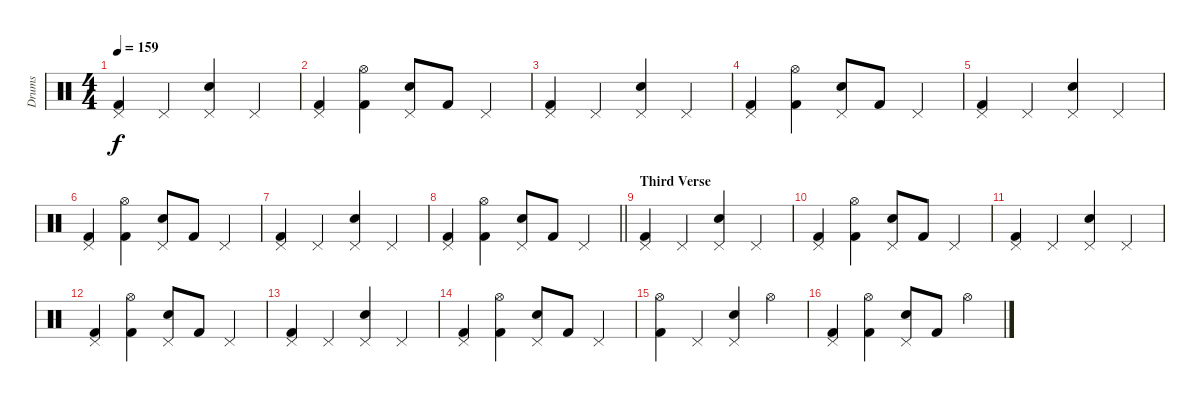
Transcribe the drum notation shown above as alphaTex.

\track ("Drums" "Drums") {instrument percussion}
\staff {score}
\articulation defaults
\ts (4 4)
\tempo 159
\clef neutral
\ks c
("Pedal Hi-Hat (hit)" "Kick (hit) 2").4{dy f} "Pedal Hi-Hat (hit)".4 ("Pedal Hi-Hat (hit)" "Snare (hit) 2").4 "Pedal Hi-Hat (hit)".4 |
("Pedal Hi-Hat (hit)" "Kick (hit) 2").4 ("Hi-Hat (open)" "Kick (hit) 2").4 ("Pedal Hi-Hat (hit)" "Snare (hit) 2").8 "Kick (hit) 2".8 "Pedal Hi-Hat (hit)".4 |
("Pedal Hi-Hat (hit)" "Kick (hit) 2").4 "Pedal Hi-Hat (hit)".4 ("Pedal Hi-Hat (hit)" "Snare (hit) 2").4 "Pedal Hi-Hat (hit)".4 |
("Pedal Hi-Hat (hit)" "Kick (hit) 2").4 ("Hi-Hat (open)" "Kick (hit) 2").4 ("Pedal Hi-Hat (hit)" "Snare (hit) 2").8 "Kick (hit) 2".8 "Pedal Hi-Hat (hit)".4 |
("Pedal Hi-Hat (hit)" "Kick (hit) 2").4 "Pedal Hi-Hat (hit)".4 ("Pedal Hi-Hat (hit)" "Snare (hit) 2").4 "Pedal Hi-Hat (hit)".4 |
("Pedal Hi-Hat (hit)" "Kick (hit) 2").4 ("Hi-Hat (open)" "Kick (hit) 2").4 ("Pedal Hi-Hat (hit)" "Snare (hit) 2").8 "Kick (hit) 2".8 "Pedal Hi-Hat (hit)".4 |
("Pedal Hi-Hat (hit)" "Kick (hit) 2").4 "Pedal Hi-Hat (hit)".4 ("Pedal Hi-Hat (hit)" "Snare (hit) 2").4 "Pedal Hi-Hat (hit)".4 |
\barLineRight lightlight
("Pedal Hi-Hat (hit)" "Kick (hit) 2").4 ("Hi-Hat (open)" "Kick (hit) 2").4 ("Pedal Hi-Hat (hit)" "Snare (hit) 2").8 "Kick (hit) 2".8 "Pedal Hi-Hat (hit)".4 |
\section ("" "Third Verse")
("Pedal Hi-Hat (hit)" "Kick (hit) 2").4 "Pedal Hi-Hat (hit)".4 ("Pedal Hi-Hat (hit)" "Snare (hit) 2").4 "Pedal Hi-Hat (hit)".4 |
("Pedal Hi-Hat (hit)" "Kick (hit) 2").4 ("Hi-Hat (open)" "Kick (hit) 2").4 ("Pedal Hi-Hat (hit)" "Snare (hit) 2").8 "Kick (hit) 2".8 "Pedal Hi-Hat (hit)".4 |
("Pedal Hi-Hat (hit)" "Kick (hit) 2").4 "Pedal Hi-Hat (hit)".4 ("Pedal Hi-Hat (hit)" "Snare (hit) 2").4 "Pedal Hi-Hat (hit)".4 |
("Pedal Hi-Hat (hit)" "Kick (hit) 2").4 ("Hi-Hat (open)" "Kick (hit) 2").4 ("Pedal Hi-Hat (hit)" "Snare (hit) 2").8 "Kick (hit) 2".8 "Pedal Hi-Hat (hit)".4 |
("Pedal Hi-Hat (hit)" "Kick (hit) 2").4 "Pedal Hi-Hat (hit)".4 ("Pedal Hi-Hat (hit)" "Snare (hit) 2").4 "Pedal Hi-Hat (hit)".4 |
("Pedal Hi-Hat (hit)" "Kick (hit) 2").4 ("Hi-Hat (open)" "Kick (hit) 2").4 ("Pedal Hi-Hat (hit)" "Snare (hit) 2").8 "Kick (hit) 2".8 "Pedal Hi-Hat (hit)".4 |
("Hi-Hat (open)" "Kick (hit) 2").4 "Pedal Hi-Hat (hit)".4 ("Pedal Hi-Hat (hit)" "Snare (hit) 2").4 "Hi-Hat (open)".4 |
("Pedal Hi-Hat (hit)" "Kick (hit) 2").4 ("Hi-Hat (open)" "Kick (hit) 2").4 ("Pedal Hi-Hat (hit)" "Snare (hit) 2").8 "Kick (hit) 2".8 "Hi-Hat (open)".4
